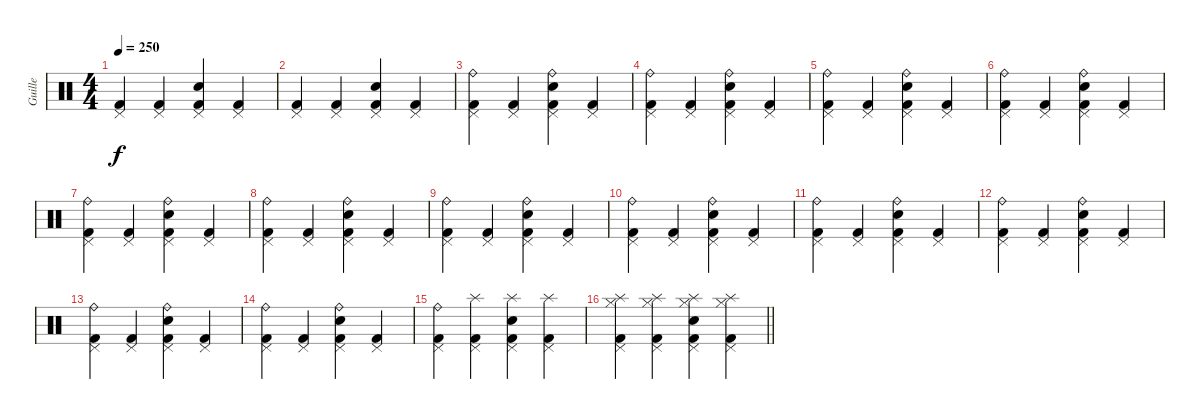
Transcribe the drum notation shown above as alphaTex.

\track ("Guille" "Guille") {instrument percussion}
\staff
\articulation defaults
\ts (4 4)
\tempo 250
\clef neutral
\ks c
("Kick (hit) 2" "Pedal Hi-Hat (hit)").4{dy f} ("Kick (hit) 2" "Pedal Hi-Hat (hit)").4 ("Kick (hit) 2" "Electric Snare (hit)" "Pedal Hi-Hat (hit)").4 ("Kick (hit) 2" "Pedal Hi-Hat (hit)").4 |
("Kick (hit) 2" "Pedal Hi-Hat (hit)").4 ("Kick (hit) 2" "Pedal Hi-Hat (hit)").4 ("Kick (hit) 2" "Electric Snare (hit)" "Pedal Hi-Hat (hit)").4 ("Kick (hit) 2" "Pedal Hi-Hat (hit)").4 |
("Kick (hit) 2" "Pedal Hi-Hat (hit)" "Ride (bell)").4 ("Kick (hit) 2" "Pedal Hi-Hat (hit)").4 ("Kick (hit) 2" "Electric Snare (hit)" "Pedal Hi-Hat (hit)" "Ride (bell)").4 ("Kick (hit) 2" "Pedal Hi-Hat (hit)").4 |
("Kick (hit) 2" "Pedal Hi-Hat (hit)" "Ride (bell)").4 ("Kick (hit) 2" "Pedal Hi-Hat (hit)").4 ("Kick (hit) 2" "Electric Snare (hit)" "Pedal Hi-Hat (hit)" "Ride (bell)").4 ("Kick (hit) 2" "Pedal Hi-Hat (hit)").4 |
("Kick (hit) 2" "Pedal Hi-Hat (hit)" "Ride (bell)").4 ("Kick (hit) 2" "Pedal Hi-Hat (hit)").4 ("Kick (hit) 2" "Electric Snare (hit)" "Pedal Hi-Hat (hit)" "Ride (bell)").4 ("Kick (hit) 2" "Pedal Hi-Hat (hit)").4 |
("Kick (hit) 2" "Pedal Hi-Hat (hit)" "Ride (bell)").4 ("Kick (hit) 2" "Pedal Hi-Hat (hit)").4 ("Kick (hit) 2" "Electric Snare (hit)" "Pedal Hi-Hat (hit)" "Ride (bell)").4 ("Kick (hit) 2" "Pedal Hi-Hat (hit)").4 |
("Kick (hit) 2" "Pedal Hi-Hat (hit)" "Ride (bell)").4 ("Kick (hit) 2" "Pedal Hi-Hat (hit)").4 ("Kick (hit) 2" "Electric Snare (hit)" "Pedal Hi-Hat (hit)" "Ride (bell)").4 ("Kick (hit) 2" "Pedal Hi-Hat (hit)").4 |
("Kick (hit) 2" "Pedal Hi-Hat (hit)" "Ride (bell)").4 ("Kick (hit) 2" "Pedal Hi-Hat (hit)").4 ("Kick (hit) 2" "Electric Snare (hit)" "Pedal Hi-Hat (hit)" "Ride (bell)").4 ("Kick (hit) 2" "Pedal Hi-Hat (hit)").4 |
("Kick (hit) 2" "Pedal Hi-Hat (hit)" "Ride (bell)").4 ("Kick (hit) 2" "Pedal Hi-Hat (hit)").4 ("Kick (hit) 2" "Electric Snare (hit)" "Pedal Hi-Hat (hit)" "Ride (bell)").4 ("Kick (hit) 2" "Pedal Hi-Hat (hit)").4 |
("Kick (hit) 2" "Pedal Hi-Hat (hit)" "Ride (bell)").4 ("Kick (hit) 2" "Pedal Hi-Hat (hit)").4 ("Kick (hit) 2" "Electric Snare (hit)" "Pedal Hi-Hat (hit)" "Ride (bell)").4 ("Kick (hit) 2" "Pedal Hi-Hat (hit)").4 |
("Kick (hit) 2" "Pedal Hi-Hat (hit)" "Ride (bell)").4 ("Kick (hit) 2" "Pedal Hi-Hat (hit)").4 ("Kick (hit) 2" "Electric Snare (hit)" "Pedal Hi-Hat (hit)" "Ride (bell)").4 ("Kick (hit) 2" "Pedal Hi-Hat (hit)").4 |
("Kick (hit) 2" "Pedal Hi-Hat (hit)" "Ride (bell)").4 ("Kick (hit) 2" "Pedal Hi-Hat (hit)").4 ("Kick (hit) 2" "Electric Snare (hit)" "Pedal Hi-Hat (hit)" "Ride (bell)").4 ("Kick (hit) 2" "Pedal Hi-Hat (hit)").4 |
("Kick (hit) 2" "Pedal Hi-Hat (hit)" "Ride (bell)").4 ("Kick (hit) 2" "Pedal Hi-Hat (hit)").4 ("Kick (hit) 2" "Electric Snare (hit)" "Pedal Hi-Hat (hit)" "Ride (bell)").4 ("Kick (hit) 2" "Pedal Hi-Hat (hit)").4 |
("Kick (hit) 2" "Pedal Hi-Hat (hit)" "Ride (bell)").4 ("Kick (hit) 2" "Pedal Hi-Hat (hit)").4 ("Kick (hit) 2" "Electric Snare (hit)" "Pedal Hi-Hat (hit)" "Ride (bell)").4 ("Kick (hit) 2" "Pedal Hi-Hat (hit)").4 |
("Kick (hit) 2" "Pedal Hi-Hat (hit)" "Ride (bell)").4 ("Kick (hit) 2" "Pedal Hi-Hat (hit)" "Splash (hit)").4 ("Kick (hit) 2" "Electric Snare (hit)" "Pedal Hi-Hat (hit)" "Splash (hit)").4 ("Kick (hit) 2" "Pedal Hi-Hat (hit)" "Splash (hit)").4 |
\barLineRight lightlight
("Kick (hit) 2" "Hi-Hat (closed)" "Pedal Hi-Hat (hit)" "Splash (hit)").4 ("Kick (hit) 2" "Hi-Hat (closed)" "Pedal Hi-Hat (hit)" "Splash (hit)").4 ("Kick (hit) 2" "Electric Snare (hit)" "Hi-Hat (closed)" "Pedal Hi-Hat (hit)" "Splash (hit)").4 ("Kick (hit) 2" "Hi-Hat (closed)" "Pedal Hi-Hat (hit)" "Splash (hit)").4
